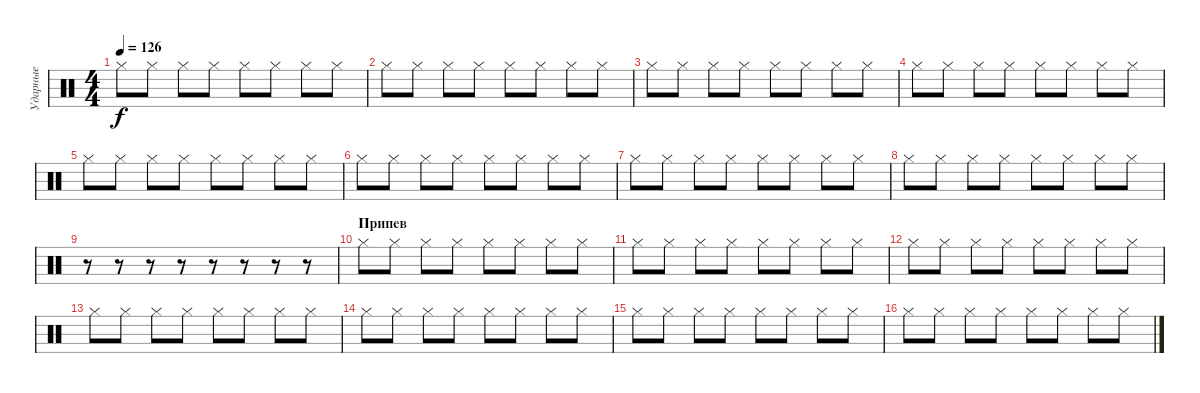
\track ("Ударные" "Ударные") {instrument percussion}
\staff {score}
\articulation defaults
\ts (4 4)
\tempo 126
\clef neutral
\ks c "Hi-Hat (closed)".8{dy f} "Hi-Hat (closed)".8 "Hi-Hat (closed)".8 "Hi-Hat (closed)".8 "Hi-Hat (closed)".8 "Hi-Hat (closed)".8 "Hi-Hat (closed)".8 "Hi-Hat (closed)".8
|
"Hi-Hat (closed)".8 "Hi-Hat (closed)".8 "Hi-Hat (closed)".8 "Hi-Hat (closed)".8 "Hi-Hat (closed)".8 "Hi-Hat (closed)".8 "Hi-Hat (closed)".8 "Hi-Hat (closed)".8 |
"Hi-Hat (closed)".8 "Hi-Hat (closed)".8 "Hi-Hat (closed)".8 "Hi-Hat (closed)".8 "Hi-Hat (closed)".8 "Hi-Hat (closed)".8 "Hi-Hat (closed)".8 "Hi-Hat (closed)".8 |
"Hi-Hat (closed)".8 "Hi-Hat (closed)".8 "Hi-Hat (closed)".8 "Hi-Hat (closed)".8 "Hi-Hat (closed)".8 "Hi-Hat (closed)".8 "Hi-Hat (closed)".8 "Hi-Hat (closed)".8 |
"Hi-Hat (closed)".8 "Hi-Hat (closed)".8 "Hi-Hat (closed)".8 "Hi-Hat (closed)".8 "Hi-Hat (closed)".8 "Hi-Hat (closed)".8 "Hi-Hat (closed)".8 "Hi-Hat (closed)".8 |
"Hi-Hat (closed)".8 "Hi-Hat (closed)".8 "Hi-Hat (closed)".8 "Hi-Hat (closed)".8 "Hi-Hat (closed)".8 "Hi-Hat (closed)".8 "Hi-Hat (closed)".8 "Hi-Hat (closed)".8 |
"Hi-Hat (closed)".8 "Hi-Hat (closed)".8 "Hi-Hat (closed)".8 "Hi-Hat (closed)".8 "Hi-Hat (closed)".8 "Hi-Hat (closed)".8 "Hi-Hat (closed)".8 "Hi-Hat (closed)".8 |
"Hi-Hat (closed)".8 "Hi-Hat (closed)".8 "Hi-Hat (closed)".8 "Hi-Hat (closed)".8 "Hi-Hat (closed)".8 "Hi-Hat (closed)".8 "Hi-Hat (closed)".8 "Hi-Hat (closed)".8 |
r.8 r.8 r.8 r.8 r.8 r.8 r.8 r.8 |
\section ("" "Припев")
"Hi-Hat (closed)".8 "Hi-Hat (closed)".8 "Hi-Hat (closed)".8 "Hi-Hat (closed)".8 "Hi-Hat (closed)".8 "Hi-Hat (closed)".8 "Hi-Hat (closed)".8 "Hi-Hat (closed)".8 |
"Hi-Hat (closed)".8 "Hi-Hat (closed)".8 "Hi-Hat (closed)".8 "Hi-Hat (closed)".8 "Hi-Hat (closed)".8 "Hi-Hat (closed)".8 "Hi-Hat (closed)".8 "Hi-Hat (closed)".8 |
"Hi-Hat (closed)".8 "Hi-Hat (closed)".8 "Hi-Hat (closed)".8 "Hi-Hat (closed)".8 "Hi-Hat (closed)".8 "Hi-Hat (closed)".8 "Hi-Hat (closed)".8 "Hi-Hat (closed)".8 |
"Hi-Hat (closed)".8 "Hi-Hat (closed)".8 "Hi-Hat (closed)".8 "Hi-Hat (closed)".8 "Hi-Hat (closed)".8 "Hi-Hat (closed)".8 "Hi-Hat (closed)".8 "Hi-Hat (closed)".8 |
"Hi-Hat (closed)".8 "Hi-Hat (closed)".8 "Hi-Hat (closed)".8 "Hi-Hat (closed)".8 "Hi-Hat (closed)".8 "Hi-Hat (closed)".8 "Hi-Hat (closed)".8 "Hi-Hat (closed)".8 |
"Hi-Hat (closed)".8 "Hi-Hat (closed)".8 "Hi-Hat (closed)".8 "Hi-Hat (closed)".8 "Hi-Hat (closed)".8 "Hi-Hat (closed)".8 "Hi-Hat (closed)".8 "Hi-Hat (closed)".8 |
"Hi-Hat (closed)".8 "Hi-Hat (closed)".8 "Hi-Hat (closed)".8 "Hi-Hat (closed)".8 "Hi-Hat (closed)".8 "Hi-Hat (closed)".8 "Hi-Hat (closed)".8 "Hi-Hat (closed)".8
